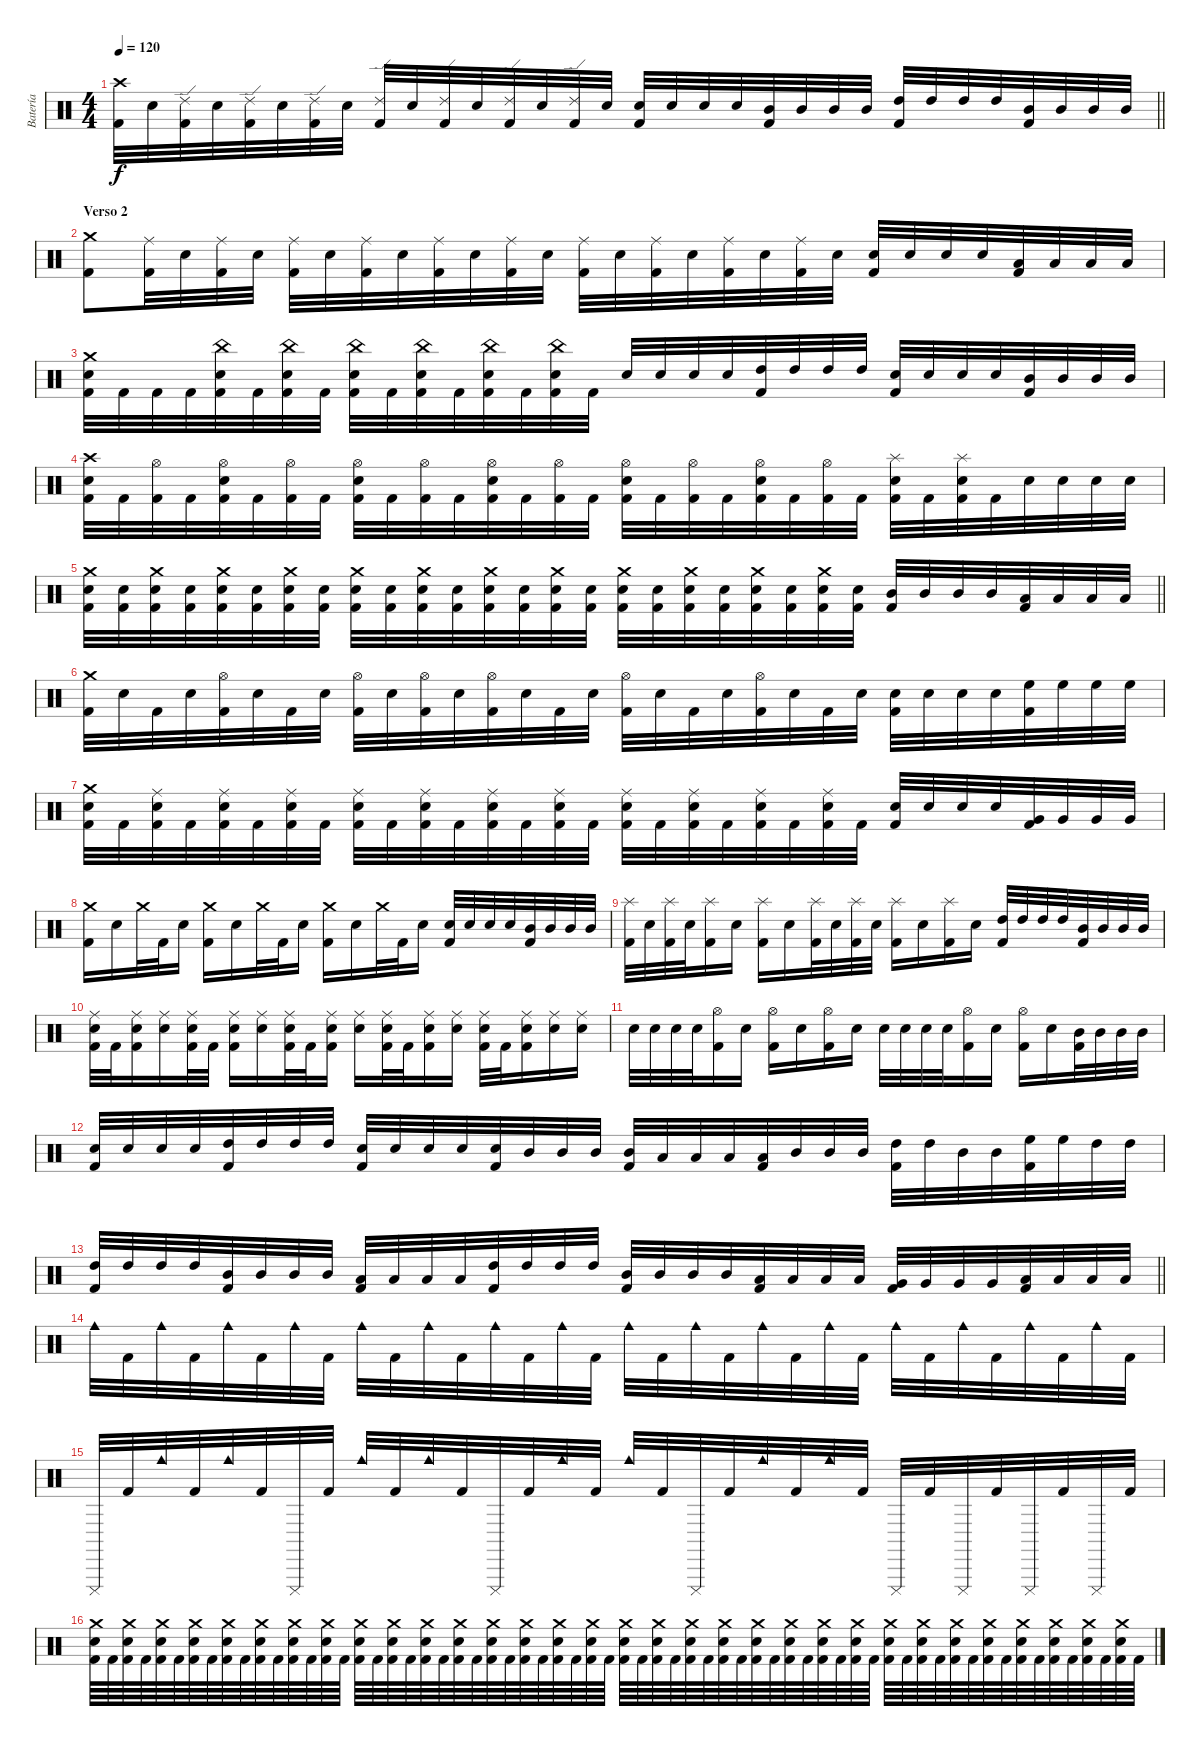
\track ("Batería" "Batería") {instrument percussion}
\staff {score}
\articulation defaults
\ts (4 4)
\tempo 120
\clef neutral
\barLineRight lightlight
\ks c
("Crash high (hit)" "Kick (hit) 2").32{dy f} "Electric Snare (hit)".32 ("Ride (edge) 2" "Kick (hit) 2").32 "Electric Snare (hit)".32 ("Ride (edge) 2" "Kick (hit) 2").32 "Electric Snare (hit)".32 ("Ride (edge) 2" "Kick (hit) 2").32 "Electric Snare (hit)".32 ("Ride (edge) 2" "Kick (hit) 2").32 "Electric Snare (hit)".32 ("Ride (edge) 2" "Kick (hit) 2").32 "Electric Snare (hit)".32 ("Ride (edge) 2" "Kick (hit) 2").32 "Electric Snare (hit)".32 ("Ride (edge) 2" "Kick (hit) 2").32 "Electric Snare (hit)".32 ("Electric Snare (hit)" "Kick (hit) 2").32 "Electric Snare (hit)".32 "Electric Snare (hit)".32 "Electric Snare (hit)".32 ("Mid Tom (hit)" "Kick (hit) 2").32 "Mid Tom (hit)".32 "Mid Tom (hit)".32 "Mid Tom (hit)".32 ("High Tom (hit)" "Kick (hit) 2").32 "High Tom (hit)".32 "High Tom (hit)".32 "High Tom (hit)".32 ("Mid Tom (hit)" "Kick (hit) 2").32 "Mid Tom (hit)".32 "Mid Tom (hit)".32 "Mid Tom (hit)".32 |
\section ("" "Verso 2")
("Crash medium (hit)" "Kick (hit) 2").8 ("Ride (middle)" "Kick (hit) 2").32 "Electric Snare (hit)".32 ("Ride (middle)" "Kick (hit) 2").32 "Electric Snare (hit)".32 ("Ride (middle)" "Kick (hit) 2").32 "Electric Snare (hit)".32 ("Ride (middle)" "Kick (hit) 2").32 "Electric Snare (hit)".32 ("Ride (middle)" "Kick (hit) 2").32 "Electric Snare (hit)".32 ("Ride (middle)" "Kick (hit) 2").32 "Electric Snare (hit)".32 ("Ride (middle)" "Kick (hit) 2").32 "Electric Snare (hit)".32 ("Ride (middle)" "Kick (hit) 2").32 "Electric Snare (hit)".32 ("Ride (middle)" "Kick (hit) 2").32 "Electric Snare (hit)".32 ("Ride (middle)" "Kick (hit) 2").32 "Electric Snare (hit)".32 ("Electric Snare (hit)" "Kick (hit) 2").32 "Electric Snare (hit)".32 "Electric Snare (hit)".32 "Electric Snare (hit)".32 ("Low Tom (hit)" "Kick (hit) 2").32 "Low Tom (hit)".32 "Low Tom (hit)".32 "Low Tom (hit)".32 |
("Crash medium (hit)" "Electric Snare (hit)" "Kick (hit) 2").32 "Kick (hit) 2".32 "Kick (hit) 2".32 "Kick (hit) 2".32 ("China (hit)" "Electric Snare (hit)" "Kick (hit) 2").32 "Kick (hit) 2".32 ("China (hit)" "Electric Snare (hit)" "Kick (hit) 2").32 "Kick (hit) 2".32 ("China (hit)" "Electric Snare (hit)" "Kick (hit) 2").32 "Kick (hit) 2".32 ("China (hit)" "Electric Snare (hit)" "Kick (hit) 2").32 "Kick (hit) 2".32 ("China (hit)" "Electric Snare (hit)" "Kick (hit) 2").32 "Kick (hit) 2".32 ("China (hit)" "Electric Snare (hit)" "Kick (hit) 2").32 "Kick (hit) 2".32 "Electric Snare (hit)".32 "Electric Snare (hit)".32 "Electric Snare (hit)".32 "Electric Snare (hit)".32 ("High Tom (hit)" "Kick (hit) 2").32 "High Tom (hit)".32 "High Tom (hit)".32 "High Tom (hit)".32 ("Electric Snare (hit)" "Kick (hit) 2").32 "Electric Snare (hit)".32 "Electric Snare (hit)".32 "Electric Snare (hit)".32 ("Mid Tom (hit)" "Kick (hit) 2").32 "Mid Tom (hit)".32 "Mid Tom (hit)".32 "Mid Tom (hit)".32 |
("Crash high (hit)" "Electric Snare (hit)" "Kick (hit) 2").32 "Kick (hit) 2".32 ("Hi-Hat (open)" "Kick (hit) 2").32 "Kick (hit) 2".32 ("Hi-Hat (open)" "Electric Snare (hit)" "Kick (hit) 2").32 "Kick (hit) 2".32 ("Hi-Hat (open)" "Kick (hit) 2").32 "Kick (hit) 2".32 ("Hi-Hat (open)" "Electric Snare (hit)" "Kick (hit) 2").32 "Kick (hit) 2".32 ("Hi-Hat (open)" "Kick (hit) 2").32 "Kick (hit) 2".32 ("Hi-Hat (open)" "Electric Snare (hit)" "Kick (hit) 2").32 "Kick (hit) 2".32 ("Hi-Hat (open)" "Kick (hit) 2").32 "Kick (hit) 2".32 ("Hi-Hat (open)" "Electric Snare (hit)" "Kick (hit) 2").32 "Kick (hit) 2".32 ("Hi-Hat (open)" "Kick (hit) 2").32 "Kick (hit) 2".32 ("Hi-Hat (open)" "Electric Snare (hit)" "Kick (hit) 2").32 "Kick (hit) 2".32 ("Hi-Hat (open)" "Kick (hit) 2").32 "Kick (hit) 2".32 ("Splash (hit)" "Electric Snare (hit)" "Kick (hit) 2").32 "Kick (hit) 2".32 ("Splash (hit)" "Electric Snare (hit)" "Kick (hit) 2").32 "Kick (hit) 2".32 "Electric Snare (hit)".32 "Electric Snare (hit)".32 "Electric Snare (hit)".32 "Electric Snare (hit)".32 |
\barLineRight lightlight
("Crash medium (hit)" "Electric Snare (hit)" "Kick (hit) 2").32 ("Electric Snare (hit)" "Kick (hit) 2").32 ("Crash medium (hit)" "Electric Snare (hit)" "Kick (hit) 2").32 ("Electric Snare (hit)" "Kick (hit) 2").32 ("Crash medium (hit)" "Electric Snare (hit)" "Kick (hit) 2").32 ("Electric Snare (hit)" "Kick (hit) 2").32 ("Crash medium (hit)" "Electric Snare (hit)" "Kick (hit) 2").32 ("Electric Snare (hit)" "Kick (hit) 2").32 ("Crash medium (hit)" "Electric Snare (hit)" "Kick (hit) 2").32 ("Electric Snare (hit)" "Kick (hit) 2").32 ("Crash medium (hit)" "Electric Snare (hit)" "Kick (hit) 2").32 ("Electric Snare (hit)" "Kick (hit) 2").32 ("Crash medium (hit)" "Electric Snare (hit)" "Kick (hit) 2").32 ("Electric Snare (hit)" "Kick (hit) 2").32 ("Crash medium (hit)" "Electric Snare (hit)" "Kick (hit) 2").32 ("Electric Snare (hit)" "Kick (hit) 2").32 ("Crash medium (hit)" "Electric Snare (hit)" "Kick (hit) 2").32 ("Electric Snare (hit)" "Kick (hit) 2").32 ("Crash medium (hit)" "Electric Snare (hit)" "Kick (hit) 2").32 ("Electric Snare (hit)" "Kick (hit) 2").32 ("Crash medium (hit)" "Electric Snare (hit)" "Kick (hit) 2").32 ("Electric Snare (hit)" "Kick (hit) 2").32 ("Crash medium (hit)" "Electric Snare (hit)" "Kick (hit) 2").32 ("Electric Snare (hit)" "Kick (hit) 2").32 ("Mid Tom (hit)" "Kick (hit) 2").32 "Mid Tom (hit)".32 "Mid Tom (hit)".32 "Mid Tom (hit)".32 ("Low Tom (hit)" "Kick (hit) 2").32 "Low Tom (hit)".32 "Low Tom (hit)".32 "Low Tom (hit)".32 |
("Crash medium (hit)" "Kick (hit) 2").32 "Electric Snare (hit)".32 "Kick (hit) 2".32 "Electric Snare (hit)".32 ("Hi-Hat (open)" "Kick (hit) 2").32 "Electric Snare (hit)".32 "Kick (hit) 2".32 "Electric Snare (hit)".32 ("Hi-Hat (open)" "Kick (hit) 2").32 "Electric Snare (hit)".32 ("Hi-Hat (open)" "Kick (hit) 2").32 "Electric Snare (hit)".32 ("Hi-Hat (open)" "Kick (hit) 2").32 "Electric Snare (hit)".32 "Kick (hit) 2".32 "Electric Snare (hit)".32 ("Hi-Hat (open)" "Kick (hit) 2").32 "Electric Snare (hit)".32 "Kick (hit) 2".32 "Electric Snare (hit)".32 ("Hi-Hat (open)" "Kick (hit) 2").32 "Electric Snare (hit)".32 "Kick (hit) 2".32 "Electric Snare (hit)".32 ("Electric Snare (hit)" "Kick (hit) 2").32 "Electric Snare (hit)".32 "Electric Snare (hit)".32 "Electric Snare (hit)".32 ("High Floor Tom (hit)" "Kick (hit) 2").32 "High Floor Tom (hit)".32 "High Floor Tom (hit)".32 "High Floor Tom (hit)".32 |
("Crash medium (hit)" "Electric Snare (hit)" "Kick (hit) 2").32 "Kick (hit) 2".32 ("Ride (middle)" "Electric Snare (hit)" "Kick (hit) 2").32 "Kick (hit) 2".32 ("Ride (middle)" "Electric Snare (hit)" "Kick (hit) 2").32 "Kick (hit) 2".32 ("Ride (middle)" "Electric Snare (hit)" "Kick (hit) 2").32 "Kick (hit) 2".32 ("Ride (middle)" "Electric Snare (hit)" "Kick (hit) 2").32 "Kick (hit) 2".32 ("Ride (middle)" "Electric Snare (hit)" "Kick (hit) 2").32 "Kick (hit) 2".32 ("Ride (middle)" "Electric Snare (hit)" "Kick (hit) 2").32 "Kick (hit) 2".32 ("Ride (middle)" "Electric Snare (hit)" "Kick (hit) 2").32 "Kick (hit) 2".32 ("Ride (middle)" "Electric Snare (hit)" "Kick (hit) 2").32 "Kick (hit) 2".32 ("Ride (middle)" "Electric Snare (hit)" "Kick (hit) 2").32 "Kick (hit) 2".32 ("Ride (middle)" "Electric Snare (hit)" "Kick (hit) 2").32 "Kick (hit) 2".32 ("Ride (middle)" "Electric Snare (hit)" "Kick (hit) 2").32 "Kick (hit) 2".32 ("Electric Snare (hit)" "Kick (hit) 2").32 "Electric Snare (hit)".32 "Electric Snare (hit)".32 "Electric Snare (hit)".32 ("Very Low Tom (hit)" "Kick (hit) 2").32 "Very Low Tom (hit)".32 "Very Low Tom (hit)".32 "Very Low Tom (hit)".32 |
("Crash medium (hit)" "Kick (hit) 2").16 "Electric Snare (hit)".16 "Crash medium (hit)".32 "Kick (hit) 2".32 "Electric Snare (hit)".16 ("Crash medium (hit)" "Kick (hit) 2").16 "Electric Snare (hit)".16 "Crash medium (hit)".32 "Kick (hit) 2".32 "Electric Snare (hit)".16 ("Crash medium (hit)" "Kick (hit) 2").16 "Electric Snare (hit)".16 "Crash medium (hit)".32 "Kick (hit) 2".32 "Electric Snare (hit)".16 ("Electric Snare (hit)" "Kick (hit) 2").32 "Electric Snare (hit)".32 "Electric Snare (hit)".32 "Electric Snare (hit)".32 ("Mid Tom (hit)" "Kick (hit) 2").32 "Mid Tom (hit)".32 "Mid Tom (hit)".32 "Mid Tom (hit)".32 |
("Splash (hit)" "Kick (hit) 2").32 "Electric Snare (hit)".32 ("Splash (hit)" "Kick (hit) 2").32 "Electric Snare (hit)".32 ("Splash (hit)" "Kick (hit) 2").16 "Electric Snare (hit)".16 ("Splash (hit)" "Kick (hit) 2").16 "Electric Snare (hit)".16 ("Splash (hit)" "Kick (hit) 2").32 "Electric Snare (hit)".32 ("Splash (hit)" "Kick (hit) 2").32 "Electric Snare (hit)".32 ("Splash (hit)" "Kick (hit) 2").16 "Electric Snare (hit)".16 ("Splash (hit)" "Kick (hit) 2").16 "Electric Snare (hit)".16 ("High Tom (hit)" "Kick (hit) 2").32 "High Tom (hit)".32 "High Tom (hit)".32 "High Tom (hit)".32 ("Mid Tom (hit)" "Kick (hit) 2").32 "Mid Tom (hit)".32 "Mid Tom (hit)".32 "Mid Tom (hit)".32 |
("Ride (middle)" "Electric Snare (hit)" "Kick (hit) 2").32 "Kick (hit) 2".32 ("Ride (middle)" "Electric Snare (hit)" "Kick (hit) 2").16 ("Ride (middle)" "Electric Snare (hit)").16 ("Ride (middle)" "Electric Snare (hit)" "Kick (hit) 2").32 "Kick (hit) 2".32 ("Ride (middle)" "Electric Snare (hit)" "Kick (hit) 2").16 ("Ride (middle)" "Electric Snare (hit)").16 ("Ride (middle)" "Electric Snare (hit)" "Kick (hit) 2").32 "Kick (hit) 2".32 ("Ride (middle)" "Electric Snare (hit)" "Kick (hit) 2").16 ("Ride (middle)" "Electric Snare (hit)").16 ("Ride (middle)" "Electric Snare (hit)" "Kick (hit) 2").32 "Kick (hit) 2".32 ("Ride (middle)" "Electric Snare (hit)" "Kick (hit) 2").16 ("Ride (middle)" "Electric Snare (hit)").16 ("Ride (middle)" "Electric Snare (hit)" "Kick (hit) 2").32 "Kick (hit) 2".32 ("Ride (middle)" "Electric Snare (hit)" "Kick (hit) 2").16 ("Ride (middle)" "Electric Snare (hit)").16 ("Ride (middle)" "Electric Snare (hit)").16 |
"Electric Snare (hit)".32 "Electric Snare (hit)".32 "Electric Snare (hit)".32 "Electric Snare (hit)".32 ("Hi-Hat (open)" "Kick (hit) 2").16 "Electric Snare (hit)".16 ("Hi-Hat (open)" "Kick (hit) 2").16 "Electric Snare (hit)".16 ("Hi-Hat (open)" "Kick (hit) 2").16 "Electric Snare (hit)".16 "Electric Snare (hit)".32 "Electric Snare (hit)".32 "Electric Snare (hit)".32 "Electric Snare (hit)".32 ("Hi-Hat (open)" "Kick (hit) 2").16 "Electric Snare (hit)".16 ("Hi-Hat (open)" "Kick (hit) 2").16 "Electric Snare (hit)".16 ("Mid Tom (hit)" "Kick (hit) 2").32 "Mid Tom (hit)".32 "Mid Tom (hit)".32 "Mid Tom (hit)".32 |
("Electric Snare (hit)" "Kick (hit) 2").32 "Electric Snare (hit)".32 "Electric Snare (hit)".32 "Electric Snare (hit)".32 ("High Tom (hit)" "Kick (hit) 2").32 "High Tom (hit)".32 "High Tom (hit)".32 "High Tom (hit)".32 ("Electric Snare (hit)" "Kick (hit) 2").32 "Electric Snare (hit)".32 "Electric Snare (hit)".32 "Electric Snare (hit)".32 ("Electric Snare (hit)" "Kick (hit) 2").32 "Mid Tom (hit)".32 "Mid Tom (hit)".32 "Mid Tom (hit)".32 ("Mid Tom (hit)" "Kick (hit) 2").32 "Low Tom (hit)".32 "Low Tom (hit)".32 "Low Tom (hit)".32 ("Low Tom (hit)" "Kick (hit) 2").32 "Mid Tom (hit)".32 "Mid Tom (hit)".32 "Mid Tom (hit)".32 ("High Tom (hit)" "Kick (hit) 2").32 "High Tom (hit)".32 "Mid Tom (hit)".32 "Mid Tom (hit)".32 ("High Floor Tom (hit)" "Kick (hit) 2").32 "High Floor Tom (hit)".32 "High Tom (hit)".32 "High Tom (hit)".32 |
\barLineRight lightlight
("High Tom (hit)" "Kick (hit) 2").32 "High Tom (hit)".32 "High Tom (hit)".32 "High Tom (hit)".32 ("Mid Tom (hit)" "Kick (hit) 2").32 "Mid Tom (hit)".32 "Mid Tom (hit)".32 "Mid Tom (hit)".32 ("Low Tom (hit)" "Kick (hit) 2").32 "Low Tom (hit)".32 "Low Tom (hit)".32 "Low Tom (hit)".32 ("High Tom (hit)" "Kick (hit) 2").32 "High Tom (hit)".32 "High Tom (hit)".32 "High Tom (hit)".32 ("Mid Tom (hit)" "Kick (hit) 2").32 "Mid Tom (hit)".32 "Mid Tom (hit)".32 "Mid Tom (hit)".32 ("Low Tom (hit)" "Kick (hit) 2").32 "Low Tom (hit)".32 "Low Tom (hit)".32 "Low Tom (hit)".32 ("Very Low Tom (hit)" "Kick (hit) 2").32 "Very Low Tom (hit)".32 "Very Low Tom (hit)".32 "Very Low Tom (hit)".32 ("Low Tom (hit)" "Kick (hit) 2").32 "Low Tom (hit)".32 "Low Tom (hit)".32 "Low Tom (hit)".32 |
"Cowbell medium (hit)".32 "Kick (hit) 2".32 "Cowbell medium (hit)".32 "Kick (hit) 2".32 "Cowbell medium (hit)".32 "Kick (hit) 2".32 "Cowbell medium (hit)".32 "Kick (hit) 2".32 "Cowbell medium (hit)".32 "Kick (hit) 2".32 "Cowbell medium (hit)".32 "Kick (hit) 2".32 "Cowbell medium (hit)".32 "Kick (hit) 2".32 "Cowbell medium (hit)".32 "Kick (hit) 2".32 "Cowbell medium (hit)".32 "Kick (hit) 2".32 "Cowbell medium (hit)".32 "Kick (hit) 2".32 "Cowbell medium (hit)".32 "Kick (hit) 2".32 "Cowbell medium (hit)".32 "Kick (hit) 2".32 "Cowbell medium (hit)".32 "Kick (hit) 2".32 "Cowbell medium (hit)".32 "Kick (hit) 2".32 "Cowbell medium (hit)".32 "Kick (hit) 2".32 "Cowbell medium (hit)".32 "Kick (hit) 2".32 |
"Cuica (mute)".32 "Kick (hit) 2".32 "Cowbell medium (hit)".32 "Kick (hit) 2".32 "Cowbell medium (hit)".32 "Kick (hit) 2".32 "Cuica (mute)".32 "Kick (hit) 2".32 "Cowbell medium (hit)".32 "Kick (hit) 2".32 "Cowbell medium (hit)".32 "Kick (hit) 2".32 "Cuica (mute)".32 "Kick (hit) 2".32 "Cowbell medium (hit)".32 "Kick (hit) 2".32 "Cowbell medium (hit)".32 "Kick (hit) 2".32 "Cuica (mute)".32 "Kick (hit) 2".32 "Cowbell medium (hit)".32 "Kick (hit) 2".32 "Cowbell medium (hit)".32 "Kick (hit) 2".32 "Cuica (mute)".32 "Kick (hit) 2".32 "Cuica (mute)".32 "Kick (hit) 2".32 "Cuica (mute)".32 "Kick (hit) 2".32 "Cuica (mute)".32 "Kick (hit) 2".32 |
("Crash medium (hit)" "Electric Snare (hit)" "Kick (hit) 2").64 "Kick (hit) 2".64 ("Crash medium (hit)" "Electric Snare (hit)" "Kick (hit) 2").64 "Kick (hit) 2".64 ("Crash medium (hit)" "Electric Snare (hit)" "Kick (hit) 2").64 "Kick (hit) 2".64 ("Crash medium (hit)" "Electric Snare (hit)" "Kick (hit) 2").64 "Kick (hit) 2".64 ("Crash medium (hit)" "Electric Snare (hit)" "Kick (hit) 2").64 "Kick (hit) 2".64 ("Crash medium (hit)" "Electric Snare (hit)" "Kick (hit) 2").64 "Kick (hit) 2".64 ("Crash medium (hit)" "Electric Snare (hit)" "Kick (hit) 2").64 "Kick (hit) 2".64 ("Crash medium (hit)" "Electric Snare (hit)" "Kick (hit) 2").64 "Kick (hit) 2".64 ("Crash medium (hit)" "Electric Snare (hit)" "Kick (hit) 2").64 "Kick (hit) 2".64 ("Crash medium (hit)" "Electric Snare (hit)" "Kick (hit) 2").64 "Kick (hit) 2".64 ("Crash medium (hit)" "Electric Snare (hit)" "Kick (hit) 2").64 "Kick (hit) 2".64 ("Crash medium (hit)" "Electric Snare (hit)" "Kick (hit) 2").64 "Kick (hit) 2".64 ("Crash medium (hit)" "Electric Snare (hit)" "Kick (hit) 2").64 "Kick (hit) 2".64 ("Crash medium (hit)" "Electric Snare (hit)" "Kick (hit) 2").64 "Kick (hit) 2".64 ("Crash medium (hit)" "Electric Snare (hit)" "Kick (hit) 2").64 "Kick (hit) 2".64 ("Crash medium (hit)" "Electric Snare (hit)" "Kick (hit) 2").64 "Kick (hit) 2".64 ("Crash medium (hit)" "Electric Snare (hit)" "Kick (hit) 2").64 "Kick (hit) 2".64 ("Crash medium (hit)" "Electric Snare (hit)" "Kick (hit) 2").64 "Kick (hit) 2".64 ("Crash medium (hit)" "Electric Snare (hit)" "Kick (hit) 2").64 "Kick (hit) 2".64 ("Crash medium (hit)" "Electric Snare (hit)" "Kick (hit) 2").64 "Kick (hit) 2".64 ("Crash medium (hit)" "Electric Snare (hit)" "Kick (hit) 2").64 "Kick (hit) 2".64 ("Crash medium (hit)" "Electric Snare (hit)" "Kick (hit) 2").64 "Kick (hit) 2".64 ("Crash medium (hit)" "Electric Snare (hit)" "Kick (hit) 2").64 "Kick (hit) 2".64 ("Crash medium (hit)" "Electric Snare (hit)" "Kick (hit) 2").64 "Kick (hit) 2".64 ("Crash medium (hit)" "Electric Snare (hit)" "Kick (hit) 2").64 "Kick (hit) 2".64 ("Crash medium (hit)" "Electric Snare (hit)" "Kick (hit) 2").64 "Kick (hit) 2".64 ("Crash medium (hit)" "Electric Snare (hit)" "Kick (hit) 2").64 "Kick (hit) 2".64 ("Crash medium (hit)" "Electric Snare (hit)" "Kick (hit) 2").64 "Kick (hit) 2".64 ("Crash medium (hit)" "Electric Snare (hit)" "Kick (hit) 2").64 "Kick (hit) 2".64 ("Crash medium (hit)" "Electric Snare (hit)" "Kick (hit) 2").64 "Kick (hit) 2".64 ("Crash medium (hit)" "Electric Snare (hit)" "Kick (hit) 2").64 "Kick (hit) 2".64 ("Crash medium (hit)" "Electric Snare (hit)" "Kick (hit) 2").64 "Kick (hit) 2".64
